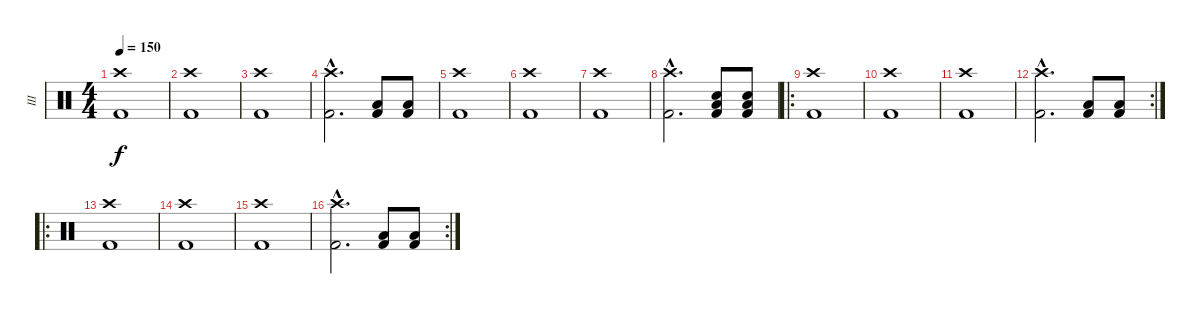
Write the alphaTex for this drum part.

\track ("III" "III") {instrument percussion}
\staff {score}
\articulation defaults
\ts (4 4)
\tempo 150
\clef neutral
\ks c
("Crash high (hit)" "Kick (hit) 2").1{dy f} |
("Crash high (hit)" "Kick (hit) 2").1 |
("Crash high (hit)" "Kick (hit) 2").1 |
("Crash high (hit)"{hac} "Kick (hit) 2"{hac}).2{d} ("Kick (hit) 2" "Low Floor Tom (hit)").8 ("Kick (hit) 2" "Low Floor Tom (hit)").8 |
("Crash high (hit)" "Kick (hit) 2").1 |
("Crash high (hit)" "Kick (hit) 2").1 |
("Crash high (hit)" "Kick (hit) 2").1 |
("Crash high (hit)"{hac} "Kick (hit) 2"{hac}).2{d} ("Kick (hit) 2" "Snare (hit) 2" "Low Floor Tom (hit)").8 ("Kick (hit) 2" "Snare (hit) 2" "Low Floor Tom (hit)").8 |
\ro
("Crash high (hit)" "Kick (hit) 2").1 |
("Crash high (hit)" "Kick (hit) 2").1 |
("Crash high (hit)" "Kick (hit) 2").1 |
\rc 2
("Crash high (hit)"{hac} "Kick (hit) 2"{hac}).2{d} ("Kick (hit) 2" "Low Floor Tom (hit)").8 ("Kick (hit) 2" "Low Floor Tom (hit)").8 |
\ro
("Crash high (hit)" "Kick (hit) 2").1 |
("Crash high (hit)" "Kick (hit) 2").1 |
("Crash high (hit)" "Kick (hit) 2").1 |
\rc 2
("Crash high (hit)"{hac} "Kick (hit) 2"{hac}).2{d} ("Kick (hit) 2" "Low Floor Tom (hit)").8 ("Kick (hit) 2" "Low Floor Tom (hit)").8
